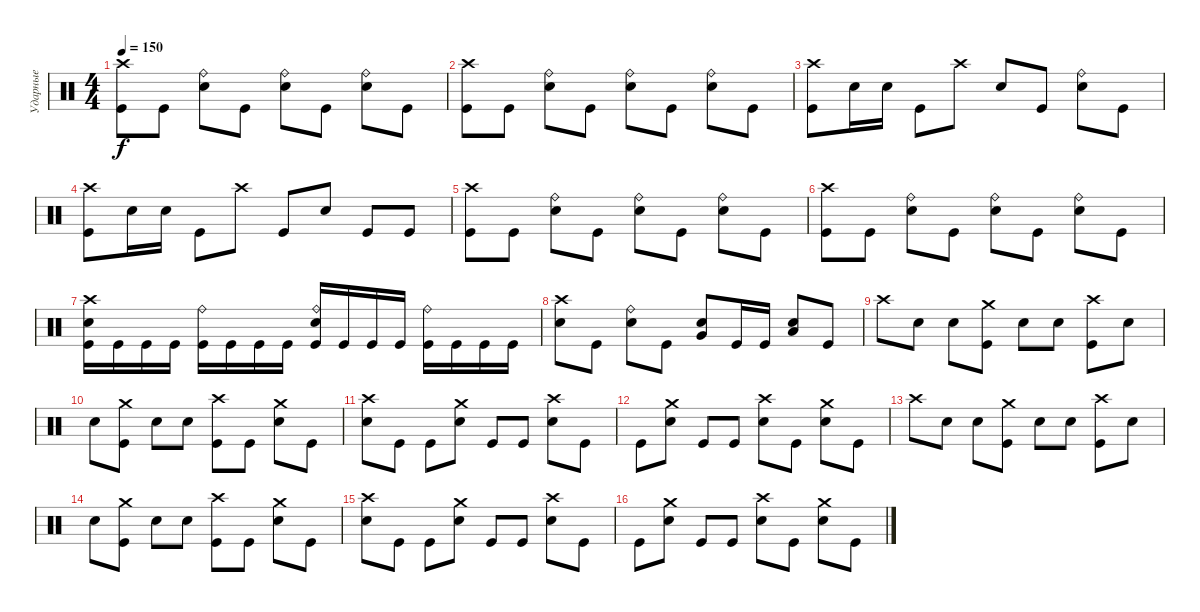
\track ("Ударные" "Ударные") {instrument percussion}
\staff {score}
\articulation defaults
\ts (4 4)
\tempo 150
\clef neutral
\ks c
("Crash high (hit)" "Kick (hit)").8{dy f} "Kick (hit)".8 ("Ride (bell)" "Electric Snare (hit)").8 "Kick (hit)".8 ("Ride (bell)" "Electric Snare (hit)").8 "Kick (hit)".8 ("Ride (bell)" "Electric Snare (hit)").8 "Kick (hit)".8 |
("Crash high (hit)" "Kick (hit)").8 "Kick (hit)".8 ("Ride (bell)" "Electric Snare (hit)").8 "Kick (hit)".8 ("Ride (bell)" "Electric Snare (hit)").8 "Kick (hit)".8 ("Ride (bell)" "Electric Snare (hit)").8 "Kick (hit)".8 |
("Crash high (hit)" "Kick (hit)").8 "Electric Snare (hit)".16 "Electric Snare (hit)".16 "Kick (hit)".8 "Crash high (hit)".8 "Electric Snare (hit)".8 "Kick (hit)".8 ("Ride (bell)" "Electric Snare (hit)").8 "Kick (hit)".8 |
("Crash high (hit)" "Kick (hit)").8 "Electric Snare (hit)".16 "Electric Snare (hit)".16 "Kick (hit)".8 "Crash high (hit)".8 "Kick (hit)".8 "Electric Snare (hit)".8 "Kick (hit)".8 "Kick (hit)".8 |
("Crash high (hit)" "Kick (hit)").8 "Kick (hit)".8 ("Ride (bell)" "Electric Snare (hit)").8 "Kick (hit)".8 ("Ride (bell)" "Electric Snare (hit)").8 "Kick (hit)".8 ("Ride (bell)" "Electric Snare (hit)").8 "Kick (hit)".8 |
("Crash high (hit)" "Kick (hit)").8 "Kick (hit)".8 ("Ride (bell)" "Electric Snare (hit)").8 "Kick (hit)".8 ("Ride (bell)" "Electric Snare (hit)").8 "Kick (hit)".8 ("Ride (bell)" "Electric Snare (hit)").8 "Kick (hit)".8 |
("Crash high (hit)" "Electric Snare (hit)" "Kick (hit)").16 "Kick (hit)".16 "Kick (hit)".16 "Kick (hit)".16 ("Ride (bell)" "Kick (hit)").16 "Kick (hit)".16 "Kick (hit)".16 "Kick (hit)".16 ("Ride (bell)" "Electric Snare (hit)" "Kick (hit)").16 "Kick (hit)".16 "Kick (hit)".16 "Kick (hit)".16 ("Ride (bell)" "Kick (hit)").16 "Kick (hit)".16 "Kick (hit)".16 "Kick (hit)".16 |
("Crash high (hit)" "Electric Snare (hit)").8 "Kick (hit)".8 ("Ride (bell)" "Electric Snare (hit)").8 "Kick (hit)".8 ("Very Low Tom (hit)" "Electric Snare (hit)").8 "Kick (hit)".16 "Kick (hit)".16 ("Low Tom (hit)" "Electric Snare (hit)").8 "Kick (hit)".8 |
"Crash high (hit)".8 "Electric Snare (hit)".8 "Electric Snare (hit)".8 ("Kick (hit)" "Crash medium (hit)").8 "Electric Snare (hit)".8 "Electric Snare (hit)".8 ("Kick (hit)" "Crash high (hit)").8 "Electric Snare (hit)".8 |
"Electric Snare (hit)".8 ("Kick (hit)" "Crash medium (hit)").8 "Electric Snare (hit)".8 "Electric Snare (hit)".8 ("Kick (hit)" "Crash high (hit)").8 "Kick (hit)".8 ("Electric Snare (hit)" "Crash medium (hit)").8 "Kick (hit)".8 |
("Crash high (hit)" "Electric Snare (hit)").8 "Kick (hit)".8 "Kick (hit)".8 ("Electric Snare (hit)" "Crash medium (hit)").8 "Kick (hit)".8 "Kick (hit)".8 ("Electric Snare (hit)" "Crash high (hit)").8 "Kick (hit)".8 |
"Kick (hit)".8 ("Electric Snare (hit)" "Crash medium (hit)").8 "Kick (hit)".8 "Kick (hit)".8 ("Electric Snare (hit)" "Crash high (hit)").8 "Kick (hit)".8 ("Electric Snare (hit)" "Crash medium (hit)").8 "Kick (hit)".8 |
"Crash high (hit)".8 "Electric Snare (hit)".8 "Electric Snare (hit)".8 ("Kick (hit)" "Crash medium (hit)").8 "Electric Snare (hit)".8 "Electric Snare (hit)".8 ("Kick (hit)" "Crash high (hit)").8 "Electric Snare (hit)".8 |
"Electric Snare (hit)".8 ("Kick (hit)" "Crash medium (hit)").8 "Electric Snare (hit)".8 "Electric Snare (hit)".8 ("Kick (hit)" "Crash high (hit)").8 "Kick (hit)".8 ("Electric Snare (hit)" "Crash medium (hit)").8 "Kick (hit)".8 |
("Crash high (hit)" "Electric Snare (hit)").8 "Kick (hit)".8 "Kick (hit)".8 ("Electric Snare (hit)" "Crash medium (hit)").8 "Kick (hit)".8 "Kick (hit)".8 ("Electric Snare (hit)" "Crash high (hit)").8 "Kick (hit)".8 |
"Kick (hit)".8 ("Electric Snare (hit)" "Crash medium (hit)").8 "Kick (hit)".8 "Kick (hit)".8 ("Electric Snare (hit)" "Crash high (hit)").8 "Kick (hit)".8 ("Electric Snare (hit)" "Crash medium (hit)").8 "Kick (hit)".8
